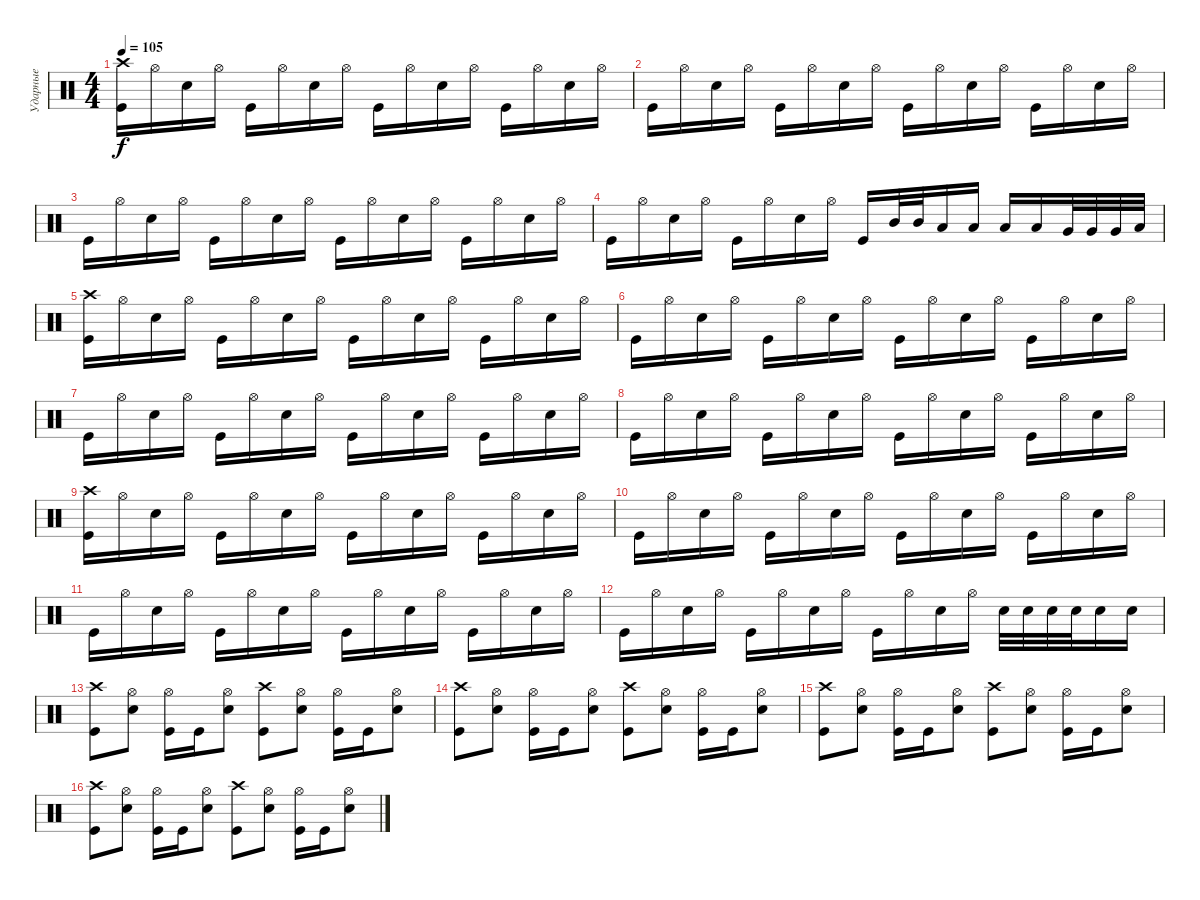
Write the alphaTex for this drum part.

\track ("Ударные" "Ударные") {instrument percussion}
\staff {score}
\articulation defaults
\ts (4 4)
\tempo 105
\clef neutral
\ks c
("Kick (hit)" "Crash high (hit)").16{dy f} "Hi-Hat (open)".16 "Snare (hit) 2".16 "Hi-Hat (open)".16 "Kick (hit)".16 "Hi-Hat (open)".16 "Snare (hit) 2".16 "Hi-Hat (open)".16 "Kick (hit)".16 "Hi-Hat (open)".16 "Snare (hit) 2".16 "Hi-Hat (open)".16 "Kick (hit)".16 "Hi-Hat (open)".16 "Snare (hit) 2".16 "Hi-Hat (open)".16 |
"Kick (hit)".16 "Hi-Hat (open)".16 "Snare (hit) 2".16 "Hi-Hat (open)".16 "Kick (hit)".16 "Hi-Hat (open)".16 "Snare (hit) 2".16 "Hi-Hat (open)".16 "Kick (hit)".16 "Hi-Hat (open)".16 "Snare (hit) 2".16 "Hi-Hat (open)".16 "Kick (hit)".16 "Hi-Hat (open)".16 "Snare (hit) 2".16 "Hi-Hat (open)".16 |
"Kick (hit)".16 "Hi-Hat (open)".16 "Snare (hit) 2".16 "Hi-Hat (open)".16 "Kick (hit)".16 "Hi-Hat (open)".16 "Snare (hit) 2".16 "Hi-Hat (open)".16 "Kick (hit)".16 "Hi-Hat (open)".16 "Snare (hit) 2".16 "Hi-Hat (open)".16 "Kick (hit)".16 "Hi-Hat (open)".16 "Snare (hit) 2".16 "Hi-Hat (open)".16 |
"Kick (hit)".16 "Hi-Hat (open)".16 "Snare (hit) 2".16 "Hi-Hat (open)".16 "Kick (hit)".16 "Hi-Hat (open)".16 "Snare (hit) 2".16 "Hi-Hat (open)".16 "Kick (hit)".16 "Mid Tom (hit)".32 "Mid Tom (hit)".32 "Low Tom (hit)".16 "Low Tom (hit)".16 "Low Tom (hit)".16 "Low Tom (hit)".16 "Very Low Tom (hit)".32 "Very Low Tom (hit)".32 "Very Low Tom (hit)".32 "Low Floor Tom (hit)".32 |
("Kick (hit)" "Crash high (hit)").16 "Hi-Hat (open)".16 "Snare (hit) 2".16 "Hi-Hat (open)".16 "Kick (hit)".16 "Hi-Hat (open)".16 "Snare (hit) 2".16 "Hi-Hat (open)".16 "Kick (hit)".16 "Hi-Hat (open)".16 "Snare (hit) 2".16 "Hi-Hat (open)".16 "Kick (hit)".16 "Hi-Hat (open)".16 "Snare (hit) 2".16 "Hi-Hat (open)".16 |
"Kick (hit)".16 "Hi-Hat (open)".16 "Snare (hit) 2".16 "Hi-Hat (open)".16 "Kick (hit)".16 "Hi-Hat (open)".16 "Snare (hit) 2".16 "Hi-Hat (open)".16 "Kick (hit)".16 "Hi-Hat (open)".16 "Snare (hit) 2".16 "Hi-Hat (open)".16 "Kick (hit)".16 "Hi-Hat (open)".16 "Snare (hit) 2".16 "Hi-Hat (open)".16 |
"Kick (hit)".16 "Hi-Hat (open)".16 "Snare (hit) 2".16 "Hi-Hat (open)".16 "Kick (hit)".16 "Hi-Hat (open)".16 "Snare (hit) 2".16 "Hi-Hat (open)".16 "Kick (hit)".16 "Hi-Hat (open)".16 "Snare (hit) 2".16 "Hi-Hat (open)".16 "Kick (hit)".16 "Hi-Hat (open)".16 "Snare (hit) 2".16 "Hi-Hat (open)".16 |
"Kick (hit)".16 "Hi-Hat (open)".16 "Snare (hit) 2".16 "Hi-Hat (open)".16 "Kick (hit)".16 "Hi-Hat (open)".16 "Snare (hit) 2".16 "Hi-Hat (open)".16 "Kick (hit)".16 "Hi-Hat (open)".16 "Snare (hit) 2".16 "Hi-Hat (open)".16 "Kick (hit)".16 "Hi-Hat (open)".16 "Snare (hit) 2".16 "Hi-Hat (open)".16 |
("Kick (hit)" "Crash high (hit)").16 "Hi-Hat (open)".16 "Snare (hit) 2".16 "Hi-Hat (open)".16 "Kick (hit)".16 "Hi-Hat (open)".16 "Snare (hit) 2".16 "Hi-Hat (open)".16 "Kick (hit)".16 "Hi-Hat (open)".16 "Snare (hit) 2".16 "Hi-Hat (open)".16 "Kick (hit)".16 "Hi-Hat (open)".16 "Snare (hit) 2".16 "Hi-Hat (open)".16 |
"Kick (hit)".16 "Hi-Hat (open)".16 "Snare (hit) 2".16 "Hi-Hat (open)".16 "Kick (hit)".16 "Hi-Hat (open)".16 "Snare (hit) 2".16 "Hi-Hat (open)".16 "Kick (hit)".16 "Hi-Hat (open)".16 "Snare (hit) 2".16 "Hi-Hat (open)".16 "Kick (hit)".16 "Hi-Hat (open)".16 "Snare (hit) 2".16 "Hi-Hat (open)".16 |
"Kick (hit)".16 "Hi-Hat (open)".16 "Snare (hit) 2".16 "Hi-Hat (open)".16 "Kick (hit)".16 "Hi-Hat (open)".16 "Snare (hit) 2".16 "Hi-Hat (open)".16 "Kick (hit)".16 "Hi-Hat (open)".16 "Snare (hit) 2".16 "Hi-Hat (open)".16 "Kick (hit)".16 "Hi-Hat (open)".16 "Snare (hit) 2".16 "Hi-Hat (open)".16 |
"Kick (hit)".16 "Hi-Hat (open)".16 "Snare (hit) 2".16 "Hi-Hat (open)".16 "Kick (hit)".16 "Hi-Hat (open)".16 "Snare (hit) 2".16 "Hi-Hat (open)".16 "Kick (hit)".16 "Hi-Hat (open)".16 "Snare (hit) 2".16 "Hi-Hat (open)".16 "Snare (hit) 2".32 "Snare (hit) 2".32 "Snare (hit) 2".32 "Snare (hit) 2".32 "Snare (hit) 2".16 "Snare (hit) 2".16 |
("Kick (hit)" "Crash high (hit)").8 ("Snare (hit) 2" "Hi-Hat (open)").8 ("Kick (hit)" "Hi-Hat (open)").16 "Kick (hit)".16 ("Snare (hit) 2" "Hi-Hat (open)").8 ("Kick (hit)" "Crash high (hit)").8 ("Snare (hit) 2" "Hi-Hat (open)").8 ("Kick (hit)" "Hi-Hat (open)").16 "Kick (hit)".16 ("Snare (hit) 2" "Hi-Hat (open)").8 |
("Kick (hit)" "Crash high (hit)").8 ("Snare (hit) 2" "Hi-Hat (open)").8 ("Kick (hit)" "Hi-Hat (open)").16 "Kick (hit)".16 ("Snare (hit) 2" "Hi-Hat (open)").8 ("Kick (hit)" "Crash high (hit)").8 ("Snare (hit) 2" "Hi-Hat (open)").8 ("Kick (hit)" "Hi-Hat (open)").16 "Kick (hit)".16 ("Snare (hit) 2" "Hi-Hat (open)").8 |
("Kick (hit)" "Crash high (hit)").8 ("Snare (hit) 2" "Hi-Hat (open)").8 ("Kick (hit)" "Hi-Hat (open)").16 "Kick (hit)".16 ("Snare (hit) 2" "Hi-Hat (open)").8 ("Kick (hit)" "Crash high (hit)").8 ("Snare (hit) 2" "Hi-Hat (open)").8 ("Kick (hit)" "Hi-Hat (open)").16 "Kick (hit)".16 ("Snare (hit) 2" "Hi-Hat (open)").8 |
("Kick (hit)" "Crash high (hit)").8 ("Snare (hit) 2" "Hi-Hat (open)").8 ("Kick (hit)" "Hi-Hat (open)").16 "Kick (hit)".16 ("Snare (hit) 2" "Hi-Hat (open)").8 ("Kick (hit)" "Crash high (hit)").8 ("Snare (hit) 2" "Hi-Hat (open)").8 ("Kick (hit)" "Hi-Hat (open)").16 "Kick (hit)".16 ("Snare (hit) 2" "Hi-Hat (open)").8
